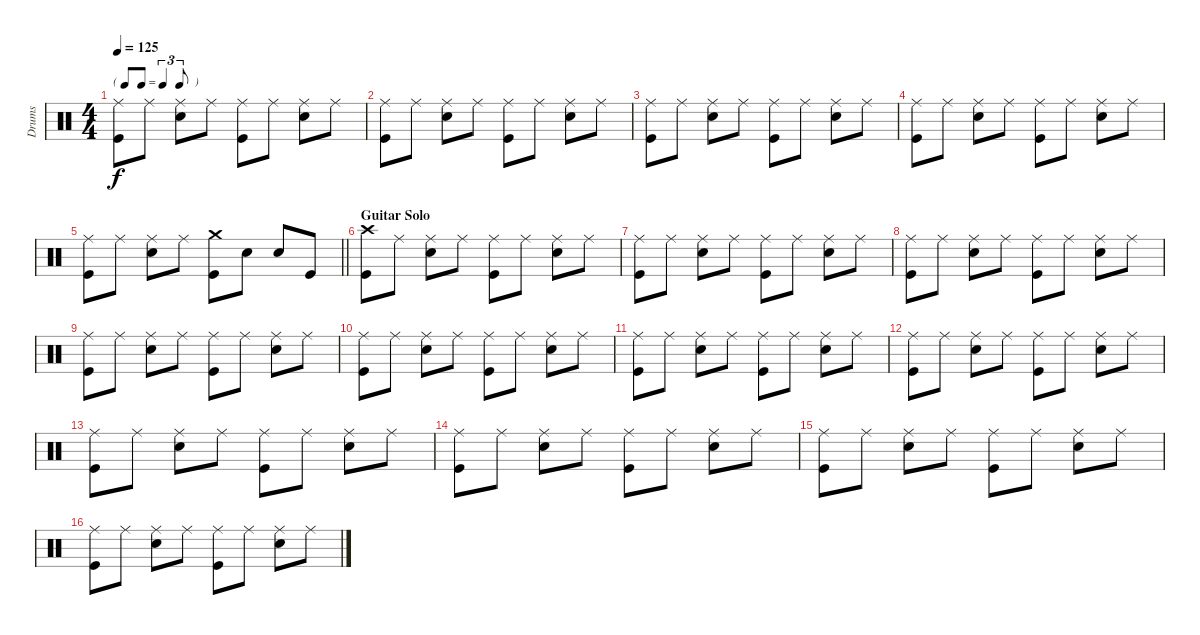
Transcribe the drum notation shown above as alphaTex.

\track ("Drums" "Drums") {instrument percussion}
\staff {score}
\articulation defaults
\ts (4 4)
\tf triplet8th
\tempo 125
\clef neutral
\ks aminor
("Ride (middle)" "Kick (hit)").8{dy f} "Ride (middle)".8 ("Ride (middle)" "Snare (hit) 2").8 "Ride (middle)".8 ("Ride (middle)" "Kick (hit)").8 "Ride (middle)".8 ("Ride (middle)" "Snare (hit) 2").8 "Ride (middle)".8 |
("Ride (middle)" "Kick (hit)").8 "Ride (middle)".8 ("Ride (middle)" "Snare (hit) 2").8 "Ride (middle)".8 ("Ride (middle)" "Kick (hit)").8 "Ride (middle)".8 ("Ride (middle)" "Snare (hit) 2").8 "Ride (middle)".8 |
("Ride (middle)" "Kick (hit)").8 "Ride (middle)".8 ("Ride (middle)" "Snare (hit) 2").8 "Ride (middle)".8 ("Ride (middle)" "Kick (hit)").8 "Ride (middle)".8 ("Ride (middle)" "Snare (hit) 2").8 "Ride (middle)".8 |
("Ride (middle)" "Kick (hit)").8 "Ride (middle)".8 ("Ride (middle)" "Snare (hit) 2").8 "Ride (middle)".8 ("Ride (middle)" "Kick (hit)").8 "Ride (middle)".8 ("Ride (middle)" "Snare (hit) 2").8 "Ride (middle)".8 |
\barLineRight lightlight
("Ride (middle)" "Kick (hit)").8 "Ride (middle)".8 ("Ride (middle)" "Snare (hit) 2").8 "Ride (middle)".8 ("Crash medium (hit)" "Kick (hit)").8 "Snare (hit) 2".8 "Snare (hit) 2".8 "Kick (hit)".8 |
\section ("" "Guitar Solo")
("Crash high (hit)" "Kick (hit)").8 "Ride (middle)".8 ("Ride (middle)" "Snare (hit) 2").8 "Ride (middle)".8 ("Ride (middle)" "Kick (hit)").8 "Ride (middle)".8 ("Ride (middle)" "Snare (hit) 2").8 "Ride (middle)".8 |
("Ride (middle)" "Kick (hit)").8 "Ride (middle)".8 ("Ride (middle)" "Snare (hit) 2").8 "Ride (middle)".8 ("Ride (middle)" "Kick (hit)").8 "Ride (middle)".8 ("Ride (middle)" "Snare (hit) 2").8 "Ride (middle)".8 |
("Ride (middle)" "Kick (hit)").8 "Ride (middle)".8 ("Ride (middle)" "Snare (hit) 2").8 "Ride (middle)".8 ("Ride (middle)" "Kick (hit)").8 "Ride (middle)".8 ("Ride (middle)" "Snare (hit) 2").8 "Ride (middle)".8 |
("Ride (middle)" "Kick (hit)").8 "Ride (middle)".8 ("Ride (middle)" "Snare (hit) 2").8 "Ride (middle)".8 ("Ride (middle)" "Kick (hit)").8 "Ride (middle)".8 ("Ride (middle)" "Snare (hit) 2").8 "Ride (middle)".8 |
("Ride (middle)" "Kick (hit)").8 "Ride (middle)".8 ("Ride (middle)" "Snare (hit) 2").8 "Ride (middle)".8 ("Ride (middle)" "Kick (hit)").8 "Ride (middle)".8 ("Ride (middle)" "Snare (hit) 2").8 "Ride (middle)".8 |
("Ride (middle)" "Kick (hit)").8 "Ride (middle)".8 ("Ride (middle)" "Snare (hit) 2").8 "Ride (middle)".8 ("Ride (middle)" "Kick (hit)").8 "Ride (middle)".8 ("Ride (middle)" "Snare (hit) 2").8 "Ride (middle)".8 |
("Ride (middle)" "Kick (hit)").8 "Ride (middle)".8 ("Ride (middle)" "Snare (hit) 2").8 "Ride (middle)".8 ("Ride (middle)" "Kick (hit)").8 "Ride (middle)".8 ("Ride (middle)" "Snare (hit) 2").8 "Ride (middle)".8 |
("Ride (middle)" "Kick (hit)").8 "Ride (middle)".8 ("Ride (middle)" "Snare (hit) 2").8 "Ride (middle)".8 ("Ride (middle)" "Kick (hit)").8 "Ride (middle)".8 ("Ride (middle)" "Snare (hit) 2").8 "Ride (middle)".8 |
("Ride (middle)" "Kick (hit)").8 "Ride (middle)".8 ("Ride (middle)" "Snare (hit) 2").8 "Ride (middle)".8 ("Ride (middle)" "Kick (hit)").8 "Ride (middle)".8 ("Ride (middle)" "Snare (hit) 2").8 "Ride (middle)".8 |
("Ride (middle)" "Kick (hit)").8 "Ride (middle)".8 ("Ride (middle)" "Snare (hit) 2").8 "Ride (middle)".8 ("Ride (middle)" "Kick (hit)").8 "Ride (middle)".8 ("Ride (middle)" "Snare (hit) 2").8 "Ride (middle)".8 |
("Ride (middle)" "Kick (hit)").8 "Ride (middle)".8 ("Ride (middle)" "Snare (hit) 2").8 "Ride (middle)".8 ("Ride (middle)" "Kick (hit)").8 "Ride (middle)".8 ("Ride (middle)" "Snare (hit) 2").8 "Ride (middle)".8
